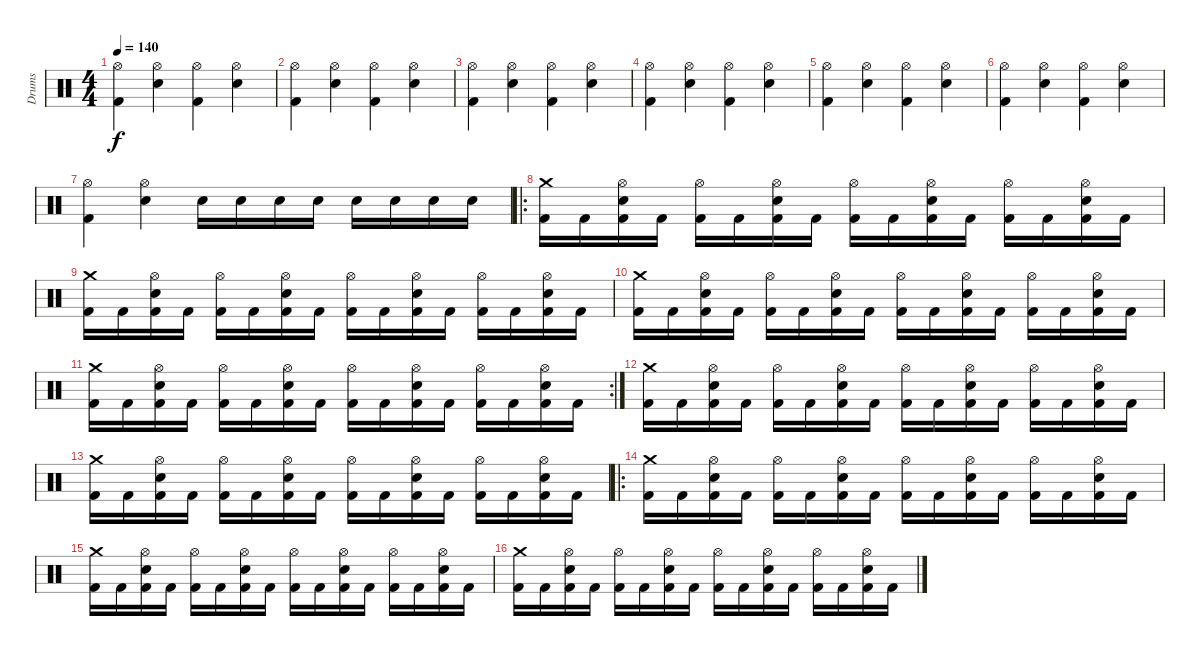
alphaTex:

\track ("Drums" "Drums") {instrument percussion}
\staff {score}
\articulation defaults
\ts (4 4)
\tempo 140
\clef neutral
\ks c
("Hi-Hat (open)" "Kick (hit) 2").4{dy f} ("Hi-Hat (open)" "Electric Snare (hit)").4 ("Hi-Hat (open)" "Kick (hit) 2").4 ("Hi-Hat (open)" "Electric Snare (hit)").4 |
("Hi-Hat (open)" "Kick (hit) 2").4 ("Hi-Hat (open)" "Electric Snare (hit)").4 ("Hi-Hat (open)" "Kick (hit) 2").4 ("Hi-Hat (open)" "Electric Snare (hit)").4 |
("Hi-Hat (open)" "Kick (hit) 2").4 ("Hi-Hat (open)" "Electric Snare (hit)").4 ("Hi-Hat (open)" "Kick (hit) 2").4 ("Hi-Hat (open)" "Electric Snare (hit)").4 |
("Hi-Hat (open)" "Kick (hit) 2").4 ("Hi-Hat (open)" "Electric Snare (hit)").4 ("Hi-Hat (open)" "Kick (hit) 2").4 ("Hi-Hat (open)" "Electric Snare (hit)").4 |
("Hi-Hat (open)" "Kick (hit) 2").4 ("Hi-Hat (open)" "Electric Snare (hit)").4 ("Hi-Hat (open)" "Kick (hit) 2").4 ("Hi-Hat (open)" "Electric Snare (hit)").4 |
("Hi-Hat (open)" "Kick (hit) 2").4 ("Hi-Hat (open)" "Electric Snare (hit)").4 ("Hi-Hat (open)" "Kick (hit) 2").4 ("Hi-Hat (open)" "Electric Snare (hit)").4 |
("Hi-Hat (open)" "Kick (hit) 2").4 ("Hi-Hat (open)" "Electric Snare (hit)").4 "Electric Snare (hit)".16 "Electric Snare (hit)".16 "Electric Snare (hit)".16 "Electric Snare (hit)".16 "Electric Snare (hit)".16 "Electric Snare (hit)".16 "Electric Snare (hit)".16 "Electric Snare (hit)".16 |
\ro
("Crash medium (hit)" "Kick (hit) 2").16 "Kick (hit) 2".16 ("Hi-Hat (open)" "Electric Snare (hit)" "Kick (hit) 2").16 "Kick (hit) 2".16 ("Hi-Hat (open)" "Kick (hit) 2").16 "Kick (hit) 2".16 ("Hi-Hat (open)" "Electric Snare (hit)" "Kick (hit) 2").16 "Kick (hit) 2".16 ("Hi-Hat (open)" "Kick (hit) 2").16 "Kick (hit) 2".16 ("Hi-Hat (open)" "Electric Snare (hit)" "Kick (hit) 2").16 "Kick (hit) 2".16 ("Hi-Hat (open)" "Kick (hit) 2").16 "Kick (hit) 2".16 ("Hi-Hat (open)" "Electric Snare (hit)" "Kick (hit) 2").16 "Kick (hit) 2".16 |
("Crash medium (hit)" "Kick (hit) 2").16 "Kick (hit) 2".16 ("Hi-Hat (open)" "Electric Snare (hit)" "Kick (hit) 2").16 "Kick (hit) 2".16 ("Hi-Hat (open)" "Kick (hit) 2").16 "Kick (hit) 2".16 ("Hi-Hat (open)" "Electric Snare (hit)" "Kick (hit) 2").16 "Kick (hit) 2".16 ("Hi-Hat (open)" "Kick (hit) 2").16 "Kick (hit) 2".16 ("Hi-Hat (open)" "Electric Snare (hit)" "Kick (hit) 2").16 "Kick (hit) 2".16 ("Hi-Hat (open)" "Kick (hit) 2").16 "Kick (hit) 2".16 ("Hi-Hat (open)" "Electric Snare (hit)" "Kick (hit) 2").16 "Kick (hit) 2".16 |
("Crash medium (hit)" "Kick (hit) 2").16 "Kick (hit) 2".16 ("Hi-Hat (open)" "Electric Snare (hit)" "Kick (hit) 2").16 "Kick (hit) 2".16 ("Hi-Hat (open)" "Kick (hit) 2").16 "Kick (hit) 2".16 ("Hi-Hat (open)" "Electric Snare (hit)" "Kick (hit) 2").16 "Kick (hit) 2".16 ("Hi-Hat (open)" "Kick (hit) 2").16 "Kick (hit) 2".16 ("Hi-Hat (open)" "Electric Snare (hit)" "Kick (hit) 2").16 "Kick (hit) 2".16 ("Hi-Hat (open)" "Kick (hit) 2").16 "Kick (hit) 2".16 ("Hi-Hat (open)" "Electric Snare (hit)" "Kick (hit) 2").16 "Kick (hit) 2".16 |
\rc 2
("Crash medium (hit)" "Kick (hit) 2").16 "Kick (hit) 2".16 ("Hi-Hat (open)" "Electric Snare (hit)" "Kick (hit) 2").16 "Kick (hit) 2".16 ("Hi-Hat (open)" "Kick (hit) 2").16 "Kick (hit) 2".16 ("Hi-Hat (open)" "Electric Snare (hit)" "Kick (hit) 2").16 "Kick (hit) 2".16 ("Hi-Hat (open)" "Kick (hit) 2").16 "Kick (hit) 2".16 ("Hi-Hat (open)" "Electric Snare (hit)" "Kick (hit) 2").16 "Kick (hit) 2".16 ("Hi-Hat (open)" "Kick (hit) 2").16 "Kick (hit) 2".16 ("Hi-Hat (open)" "Electric Snare (hit)" "Kick (hit) 2").16 "Kick (hit) 2".16 |
("Crash medium (hit)" "Kick (hit) 2").16 "Kick (hit) 2".16 ("Hi-Hat (open)" "Electric Snare (hit)" "Kick (hit) 2").16 "Kick (hit) 2".16 ("Hi-Hat (open)" "Kick (hit) 2").16 "Kick (hit) 2".16 ("Hi-Hat (open)" "Electric Snare (hit)" "Kick (hit) 2").16 "Kick (hit) 2".16 ("Hi-Hat (open)" "Kick (hit) 2").16 "Kick (hit) 2".16 ("Hi-Hat (open)" "Electric Snare (hit)" "Kick (hit) 2").16 "Kick (hit) 2".16 ("Hi-Hat (open)" "Kick (hit) 2").16 "Kick (hit) 2".16 ("Hi-Hat (open)" "Electric Snare (hit)" "Kick (hit) 2").16 "Kick (hit) 2".16 |
("Crash medium (hit)" "Kick (hit) 2").16 "Kick (hit) 2".16 ("Hi-Hat (open)" "Electric Snare (hit)" "Kick (hit) 2").16 "Kick (hit) 2".16 ("Hi-Hat (open)" "Kick (hit) 2").16 "Kick (hit) 2".16 ("Hi-Hat (open)" "Electric Snare (hit)" "Kick (hit) 2").16 "Kick (hit) 2".16 ("Hi-Hat (open)" "Kick (hit) 2").16 "Kick (hit) 2".16 ("Hi-Hat (open)" "Electric Snare (hit)" "Kick (hit) 2").16 "Kick (hit) 2".16 ("Hi-Hat (open)" "Kick (hit) 2").16 "Kick (hit) 2".16 ("Hi-Hat (open)" "Electric Snare (hit)" "Kick (hit) 2").16 "Kick (hit) 2".16 |
\ro
("Crash medium (hit)" "Kick (hit) 2").16 "Kick (hit) 2".16 ("Hi-Hat (open)" "Electric Snare (hit)" "Kick (hit) 2").16 "Kick (hit) 2".16 ("Hi-Hat (open)" "Kick (hit) 2").16 "Kick (hit) 2".16 ("Hi-Hat (open)" "Electric Snare (hit)" "Kick (hit) 2").16 "Kick (hit) 2".16 ("Hi-Hat (open)" "Kick (hit) 2").16 "Kick (hit) 2".16 ("Hi-Hat (open)" "Electric Snare (hit)" "Kick (hit) 2").16 "Kick (hit) 2".16 ("Hi-Hat (open)" "Kick (hit) 2").16 "Kick (hit) 2".16 ("Hi-Hat (open)" "Electric Snare (hit)" "Kick (hit) 2").16 "Kick (hit) 2".16 |
("Crash medium (hit)" "Kick (hit) 2").16 "Kick (hit) 2".16 ("Hi-Hat (open)" "Electric Snare (hit)" "Kick (hit) 2").16 "Kick (hit) 2".16 ("Hi-Hat (open)" "Kick (hit) 2").16 "Kick (hit) 2".16 ("Hi-Hat (open)" "Electric Snare (hit)" "Kick (hit) 2").16 "Kick (hit) 2".16 ("Hi-Hat (open)" "Kick (hit) 2").16 "Kick (hit) 2".16 ("Hi-Hat (open)" "Electric Snare (hit)" "Kick (hit) 2").16 "Kick (hit) 2".16 ("Hi-Hat (open)" "Kick (hit) 2").16 "Kick (hit) 2".16 ("Hi-Hat (open)" "Electric Snare (hit)" "Kick (hit) 2").16 "Kick (hit) 2".16 |
("Crash medium (hit)" "Kick (hit) 2").16 "Kick (hit) 2".16 ("Hi-Hat (open)" "Electric Snare (hit)" "Kick (hit) 2").16 "Kick (hit) 2".16 ("Hi-Hat (open)" "Kick (hit) 2").16 "Kick (hit) 2".16 ("Hi-Hat (open)" "Electric Snare (hit)" "Kick (hit) 2").16 "Kick (hit) 2".16 ("Hi-Hat (open)" "Kick (hit) 2").16 "Kick (hit) 2".16 ("Hi-Hat (open)" "Electric Snare (hit)" "Kick (hit) 2").16 "Kick (hit) 2".16 ("Hi-Hat (open)" "Kick (hit) 2").16 "Kick (hit) 2".16 ("Hi-Hat (open)" "Electric Snare (hit)" "Kick (hit) 2").16 "Kick (hit) 2".16
